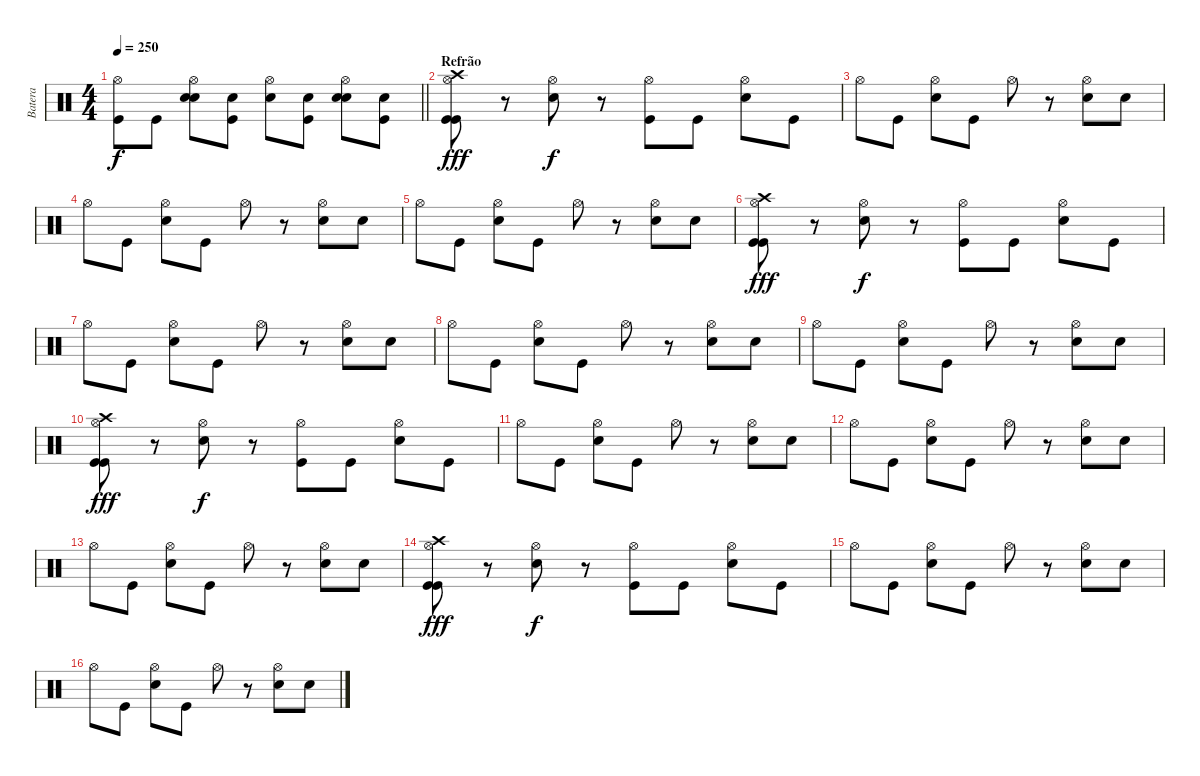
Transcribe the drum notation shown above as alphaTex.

\track ("Batera" "Batera") {instrument percussion}
\staff {score}
\articulation defaults
\ts (4 4)
\tempo 250
\clef neutral
\barLineRight lightlight
\ks c
("Hi-Hat (open)" "Kick (hit)").8{dy f} "Kick (hit)".8 ("Hi-Hat (open)" "Electric Snare (hit)" "Electric Snare (hit)").8 ("Electric Snare (hit)" "Kick (hit)").8 ("Hi-Hat (open)" "Snare (hit) 2").8 ("Snare (hit) 2" "Kick (hit)").8 ("Hi-Hat (open)" "Electric Snare (hit)" "Electric Snare (hit)").8 ("Electric Snare (hit)" "Kick (hit)").8 |
\section ("" "Refrão")
("Hi-Hat (open)" "Crash high (hit)" "Kick (hit)" "Kick (hit)").8{dy fff} r.8 ("Hi-Hat (open)" "Electric Snare (hit)").8{dy f} r.8 ("Hi-Hat (open)" "Kick (hit)").8 "Kick (hit)".8 ("Hi-Hat (open)" "Electric Snare (hit)").8 "Kick (hit)".8 |
"Hi-Hat (open)".8 "Kick (hit)".8 ("Hi-Hat (open)" "Electric Snare (hit)").8 "Kick (hit)".8 "Hi-Hat (open)".8 r.8 ("Hi-Hat (open)" "Electric Snare (hit)").8 "Electric Snare (hit)".8 |
"Hi-Hat (open)".8 "Kick (hit)".8 ("Hi-Hat (open)" "Electric Snare (hit)").8 "Kick (hit)".8 "Hi-Hat (open)".8 r.8 ("Hi-Hat (open)" "Electric Snare (hit)").8 "Electric Snare (hit)".8 |
"Hi-Hat (open)".8 "Kick (hit)".8 ("Hi-Hat (open)" "Electric Snare (hit)").8 "Kick (hit)".8 "Hi-Hat (open)".8 r.8 ("Hi-Hat (open)" "Electric Snare (hit)").8 "Electric Snare (hit)".8 |
("Hi-Hat (open)" "Crash high (hit)" "Kick (hit)" "Kick (hit)").8{dy fff} r.8 ("Hi-Hat (open)" "Electric Snare (hit)").8{dy f} r.8 ("Hi-Hat (open)" "Kick (hit)").8 "Kick (hit)".8 ("Hi-Hat (open)" "Electric Snare (hit)").8 "Kick (hit)".8 |
"Hi-Hat (open)".8 "Kick (hit)".8 ("Hi-Hat (open)" "Electric Snare (hit)").8 "Kick (hit)".8 "Hi-Hat (open)".8 r.8 ("Hi-Hat (open)" "Electric Snare (hit)").8 "Electric Snare (hit)".8 |
"Hi-Hat (open)".8 "Kick (hit)".8 ("Hi-Hat (open)" "Electric Snare (hit)").8 "Kick (hit)".8 "Hi-Hat (open)".8 r.8 ("Hi-Hat (open)" "Electric Snare (hit)").8 "Electric Snare (hit)".8 |
"Hi-Hat (open)".8 "Kick (hit)".8 ("Hi-Hat (open)" "Electric Snare (hit)").8 "Kick (hit)".8 "Hi-Hat (open)".8 r.8 ("Hi-Hat (open)" "Electric Snare (hit)").8 "Electric Snare (hit)".8 |
("Hi-Hat (open)" "Crash high (hit)" "Kick (hit)" "Kick (hit)").8{dy fff} r.8 ("Hi-Hat (open)" "Electric Snare (hit)").8{dy f} r.8 ("Hi-Hat (open)" "Kick (hit)").8 "Kick (hit)".8 ("Hi-Hat (open)" "Electric Snare (hit)").8 "Kick (hit)".8 |
"Hi-Hat (open)".8 "Kick (hit)".8 ("Hi-Hat (open)" "Electric Snare (hit)").8 "Kick (hit)".8 "Hi-Hat (open)".8 r.8 ("Hi-Hat (open)" "Electric Snare (hit)").8 "Electric Snare (hit)".8 |
"Hi-Hat (open)".8 "Kick (hit)".8 ("Hi-Hat (open)" "Electric Snare (hit)").8 "Kick (hit)".8 "Hi-Hat (open)".8 r.8 ("Hi-Hat (open)" "Electric Snare (hit)").8 "Electric Snare (hit)".8 |
"Hi-Hat (open)".8 "Kick (hit)".8 ("Hi-Hat (open)" "Electric Snare (hit)").8 "Kick (hit)".8 "Hi-Hat (open)".8 r.8 ("Hi-Hat (open)" "Electric Snare (hit)").8 "Electric Snare (hit)".8 |
("Hi-Hat (open)" "Crash high (hit)" "Kick (hit)" "Kick (hit)").8{dy fff} r.8 ("Hi-Hat (open)" "Electric Snare (hit)").8{dy f} r.8 ("Hi-Hat (open)" "Kick (hit)").8 "Kick (hit)".8 ("Hi-Hat (open)" "Electric Snare (hit)").8 "Kick (hit)".8 |
"Hi-Hat (open)".8 "Kick (hit)".8 ("Hi-Hat (open)" "Electric Snare (hit)").8 "Kick (hit)".8 "Hi-Hat (open)".8 r.8 ("Hi-Hat (open)" "Electric Snare (hit)").8 "Electric Snare (hit)".8 |
"Hi-Hat (open)".8 "Kick (hit)".8 ("Hi-Hat (open)" "Electric Snare (hit)").8 "Kick (hit)".8 "Hi-Hat (open)".8 r.8 ("Hi-Hat (open)" "Electric Snare (hit)").8 "Electric Snare (hit)".8
